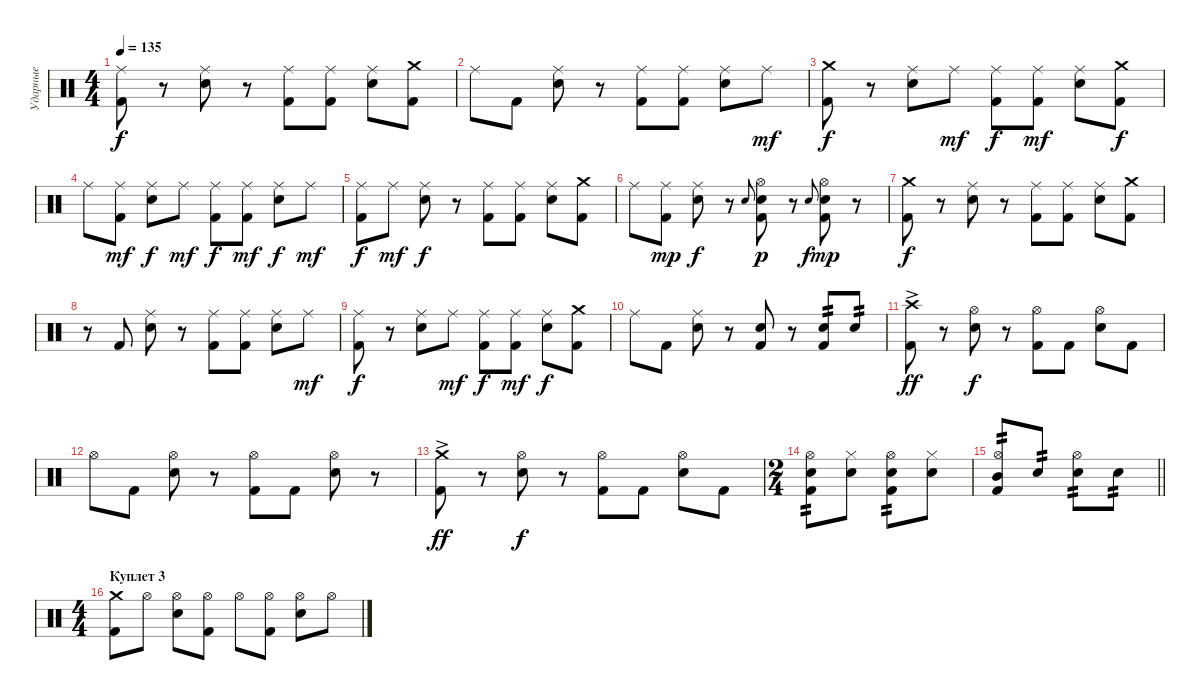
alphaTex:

\track ("Ударные" "Ударные") {instrument percussion}
\staff
\articulation defaults
\ts (4 4)
\tempo 135
\clef neutral
\ks c
("Ride (middle)" "Kick (hit) 2").8{dy f} r.8 ("Ride (middle)" "Electric Snare (hit)").8 r.8 ("Ride (middle)" "Kick (hit) 2").8 ("Ride (middle)" "Kick (hit) 2").8 ("Ride (middle)" "Electric Snare (hit)").8 ("Crash medium (hit)" "Kick (hit) 2").8 |
"Ride (middle)".8 "Kick (hit) 2".8 ("Ride (middle)" "Electric Snare (hit)").8 r.8 ("Ride (middle)" "Kick (hit) 2").8 ("Ride (middle)" "Kick (hit) 2").8 ("Ride (middle)" "Electric Snare (hit)").8 "Ride (middle)".8{dy mf} |
("Crash medium (hit)" "Kick (hit) 2").8{dy f} r.8 ("Ride (middle)" "Electric Snare (hit)").8 "Ride (middle)".8{dy mf} ("Ride (middle)" "Kick (hit) 2").8{dy f} ("Ride (middle)" "Kick (hit) 2").8{dy mf} ("Ride (middle)" "Electric Snare (hit)").8 ("Crash medium (hit)" "Kick (hit) 2").8{dy f} |
"Ride (middle)".8 ("Ride (middle)" "Kick (hit) 2").8{dy mf} ("Ride (middle)" "Electric Snare (hit)").8{dy f} "Ride (middle)".8{dy mf} ("Ride (middle)" "Kick (hit) 2").8{dy f} ("Ride (middle)" "Kick (hit) 2").8{dy mf} ("Ride (middle)" "Electric Snare (hit)").8{dy f} "Ride (middle)".8{dy mf} |
("Ride (middle)" "Kick (hit) 2").8{dy f} "Ride (middle)".8{dy mf} ("Ride (middle)" "Electric Snare (hit)").8{dy f} r.8 ("Ride (middle)" "Kick (hit) 2").8 ("Ride (middle)" "Kick (hit) 2").8 ("Ride (middle)" "Electric Snare (hit)").8 ("Crash medium (hit)" "Kick (hit) 2").8 |
"Ride (middle)".8 ("Ride (middle)" "Kick (hit) 2").8{dy mp} ("Ride (middle)" "Electric Snare (hit)").8{dy f} r.8 "Electric Snare (hit)".8{gr onbeat} ("Hi-Hat (open)" "Electric Snare (hit)" "Kick (hit) 2").8{dy p} r.8 "Electric Snare (hit)".8{gr onbeat dy f} ("Hi-Hat (open)" "Electric Snare (hit)" "Kick (hit) 2").8{dy mp} r.8 |
("Crash medium (hit)" "Kick (hit) 2").8{dy f} r.8 ("Ride (middle)" "Electric Snare (hit)").8 r.8 ("Ride (middle)" "Kick (hit) 2").8 ("Ride (middle)" "Kick (hit) 2").8 ("Ride (middle)" "Electric Snare (hit)").8 ("Crash medium (hit)" "Kick (hit) 2").8 |
r.8 "Kick (hit) 2".8 ("Ride (middle)" "Electric Snare (hit)").8 r.8 ("Ride (middle)" "Kick (hit) 2").8 ("Ride (middle)" "Kick (hit) 2").8 ("Ride (middle)" "Electric Snare (hit)").8 "Ride (middle)".8{dy mf} |
("Ride (middle)" "Kick (hit) 2").8{dy f} r.8 ("Ride (middle)" "Electric Snare (hit)").8 "Ride (middle)".8{dy mf} ("Ride (middle)" "Kick (hit) 2").8{dy f} ("Ride (middle)" "Kick (hit) 2").8{dy mf} ("Ride (middle)" "Electric Snare (hit)").8{dy f} ("Crash medium (hit)" "Kick (hit) 2").8 |
"Ride (middle)".8 "Kick (hit) 2".8 ("Ride (middle)" "Electric Snare (hit)").8 r.8 ("Electric Snare (hit)" "Kick (hit) 2").8 r.8 ("Electric Snare (hit)" "Kick (hit) 2").8{tp 2} "Electric Snare (hit)".8{tp 2} |
("Crash high (hit)"{ac} "Kick (hit) 2").8{dy ff} r.8 ("Hi-Hat (open)" "Electric Snare (hit)").8{dy f} r.8 ("Hi-Hat (open)" "Kick (hit) 2").8 "Kick (hit) 2".8 ("Hi-Hat (open)" "Electric Snare (hit)").8 "Kick (hit) 2".8 |
"Hi-Hat (open)".8 "Kick (hit) 2".8 ("Hi-Hat (open)" "Electric Snare (hit)").8 r.8 ("Hi-Hat (open)" "Kick (hit) 2").8 "Kick (hit) 2".8 ("Hi-Hat (open)" "Electric Snare (hit)").8 r.8 |
("Crash medium (hit)"{ac} "Kick (hit) 2").8{dy ff} r.8 ("Hi-Hat (open)" "Electric Snare (hit)").8{dy f} r.8 ("Hi-Hat (open)" "Kick (hit) 2").8 "Kick (hit) 2".8 ("Hi-Hat (open)" "Electric Snare (hit)").8 "Kick (hit) 2".8 |
\ts (2 4)
("Hi-Hat (open)" "Electric Snare (hit)" "Kick (hit) 2").8{tp 2} ("Hi-Hat (closed)" "Electric Snare (hit)").8 ("Hi-Hat (open)" "Electric Snare (hit)" "Kick (hit) 2").8{tp 2} ("Hi-Hat (closed)" "Electric Snare (hit)").8 |
\barLineRight lightlight
("Hi-Hat (open)" "Mid Tom (hit)" "Kick (hit) 2").8{tp 2} "Electric Snare (hit)".8{tp 2} ("Hi-Hat (open)" "Electric Snare (hit)").8{tp 2} "Electric Snare (hit)".8{tp 2} |
\ts (4 4)
\section ("" "Куплет 3")
("Crash medium (hit)" "Kick (hit) 2").8 "Hi-Hat (open)".8 ("Hi-Hat (open)" "Electric Snare (hit)").8 ("Hi-Hat (open)" "Kick (hit) 2").8 "Hi-Hat (open)".8 ("Hi-Hat (open)" "Kick (hit) 2").8 ("Hi-Hat (open)" "Electric Snare (hit)").8 "Hi-Hat (open)".8
